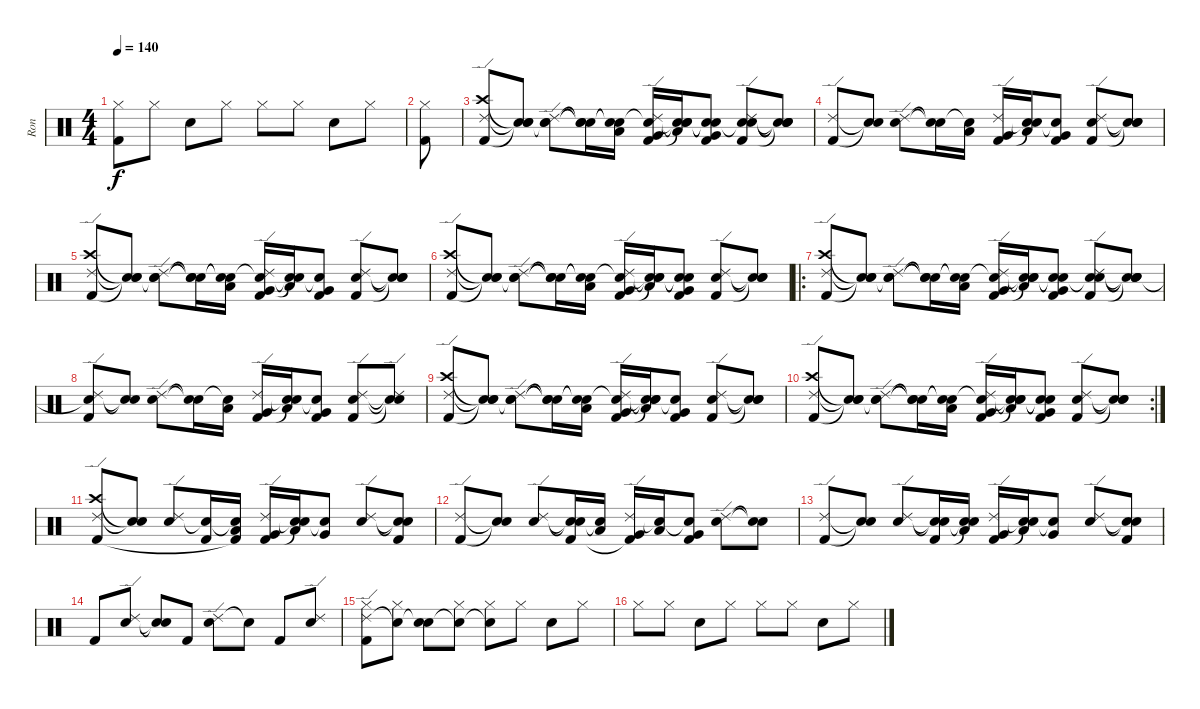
\track ("Ron" "Ron") {instrument percussion}
\staff {score}
\articulation defaults
\ts (4 4)
\tempo 140
\clef neutral
\ks c
("Hi-Hat (closed)" "Kick (hit) 2").8{dy f} "Hi-Hat (closed)".8 "Electric Snare (hit)".8 "Hi-Hat (closed)".8 "Hi-Hat (closed)".8 "Hi-Hat (closed)".8 "Electric Snare (hit)".8 "Hi-Hat (closed)".8 |
("Hi-Hat (closed)" "Kick (hit) 2").8 |
("Crash high (hit)" "Ride (edge) 2" "Kick (hit) 2").8 ("Snare (hit)"{t} "Snare (hit)"{t} "Snare (hit)"{t}).8 ("Snare (hit)"{t} "Ride (edge) 2" "Snare (hit) 2").8 ("Snare (hit)"{t} "Snare (hit)"{t} "Snare (hit)"{t}).16 ("Snare (hit)"{t} "Snare (hit)"{t} "Low Tom (hit)").16 ("Snare (hit)"{t} "Ride (edge) 2" "Very Low Tom (hit)" "Kick (hit) 2").16 ("Snare (hit)"{t} "Snare (hit)"{t} "Low Tom (hit)" "Snare (hit)"{t}).16 ("Snare (hit)"{t} "Snare (hit)"{t} "Very Low Tom (hit)" "Kick (hit) 2").8 ("Snare (hit)"{t} "Ride (edge) 2" "Snare (hit) 2" "Kick (hit) 2").8 ("Snare (hit)"{t} "Snare (hit)"{t} "Snare (hit)"{t} "Snare (hit)"{t}).8 |
("Ride (edge) 2" "Kick (hit) 2").8 ("Snare (hit)"{t} "Snare (hit)"{t}).8 ("Ride (edge) 2" "Snare (hit) 2").8 ("Snare (hit)"{t} "Snare (hit)"{t}).16 ("Snare (hit)"{t} "Low Tom (hit)").16 ("Ride (edge) 2" "Very Low Tom (hit)" "Kick (hit) 2").16 ("Snare (hit)"{t} "Low Tom (hit)" "Snare (hit)"{t}).16 ("Snare (hit)"{t} "Very Low Tom (hit)" "Kick (hit) 2").8 ("Ride (edge) 2" "Snare (hit) 2" "Kick (hit) 2").8 ("Snare (hit)"{t} "Snare (hit)"{t} "Snare (hit)"{t}).8 |
("Crash high (hit)" "Ride (edge) 2" "Kick (hit) 2").8 ("Snare (hit)"{t} "Snare (hit)"{t} "Snare (hit)"{t}).8 ("Snare (hit)"{t} "Ride (edge) 2" "Snare (hit) 2").8 ("Snare (hit)"{t} "Snare (hit)"{t} "Snare (hit)"{t}).16 ("Snare (hit)"{t} "Snare (hit)"{t} "Low Tom (hit)").16 ("Snare (hit)"{t} "Ride (edge) 2" "Very Low Tom (hit)" "Kick (hit) 2").16 ("Snare (hit)"{t} "Low Tom (hit)" "Snare (hit)"{t}).16 ("Snare (hit)"{t} "Very Low Tom (hit)" "Kick (hit) 2").8 ("Ride (edge) 2" "Snare (hit) 2" "Kick (hit) 2").8 ("Snare (hit)"{t} "Snare (hit)"{t} "Snare (hit)"{t}).8 |
("Crash high (hit)" "Ride (edge) 2" "Kick (hit) 2").8 ("Snare (hit)"{t} "Snare (hit)"{t} "Snare (hit)"{t}).8 ("Snare (hit)"{t} "Ride (edge) 2" "Snare (hit) 2").8 ("Snare (hit)"{t} "Snare (hit)"{t} "Snare (hit) 2"{t}).16 ("Snare (hit)"{t} "Snare (hit)"{t} "Low Tom (hit)").16 ("Snare (hit)"{t} "Ride (edge) 2" "Very Low Tom (hit)" "Kick (hit) 2").16 ("Snare (hit)"{t} "Snare (hit)"{t} "Low Tom (hit)" "Snare (hit)"{t}).16 ("Snare (hit)"{t} "Snare (hit)"{t} "Very Low Tom (hit)" "Kick (hit) 2").8 ("Ride (edge) 2" "Snare (hit) 2" "Kick (hit) 2").8 ("Snare (hit)"{t} "Snare (hit)"{t} "Snare (hit)"{t}).8 |
\ro
("Crash high (hit)" "Ride (edge) 2" "Kick (hit) 2").8 ("Snare (hit)"{t} "Snare (hit)"{t} "Snare (hit)"{t}).8 ("Snare (hit)"{t} "Ride (edge) 2" "Snare (hit) 2").8 ("Snare (hit)"{t} "Snare (hit)"{t} "Snare (hit)"{t}).16 ("Snare (hit)"{t} "Snare (hit)"{t} "Low Tom (hit)").16 ("Snare (hit)"{t} "Ride (edge) 2" "Very Low Tom (hit)" "Kick (hit) 2").16 ("Snare (hit)"{t} "Snare (hit)"{t} "Low Tom (hit)" "Snare (hit)"{t}).16 ("Snare (hit)"{t} "Snare (hit)"{t} "Very Low Tom (hit)" "Kick (hit) 2").8 ("Snare (hit)"{t} "Ride (edge) 2" "Snare (hit) 2" "Kick (hit) 2").8 ("Snare (hit)"{t} "Snare (hit)"{t} "Snare (hit)"{t} "Snare (hit)"{t}).8 |
("Snare (hit)"{t} "Ride (edge) 2" "Kick (hit) 2").8 ("Snare (hit)"{t} "Snare (hit)"{t}).8 ("Ride (edge) 2" "Snare (hit) 2").8 ("Snare (hit)"{t} "Snare (hit)"{t}).16 ("Snare (hit)"{t} "Low Tom (hit)").16 ("Ride (edge) 2" "Very Low Tom (hit)" "Kick (hit) 2").16 ("Snare (hit)"{t} "Low Tom (hit)" "Snare (hit)"{t}).16 ("Snare (hit)"{t} "Very Low Tom (hit)" "Kick (hit) 2").8 ("Ride (edge) 2" "Snare (hit) 2" "Kick (hit) 2").8 ("Ride (edge) 2"{t} "Snare (hit)"{t} "Snare (hit)"{t}).8 |
("Crash high (hit)" "Ride (edge) 2" "Kick (hit) 2").8 ("Snare (hit)"{t} "Snare (hit)"{t} "Snare (hit)"{t}).8 ("Snare (hit)"{t} "Ride (edge) 2" "Snare (hit) 2").8 ("Snare (hit)"{t} "Snare (hit)"{t} "Snare (hit)"{t}).16 ("Snare (hit)"{t} "Snare (hit)"{t} "Low Tom (hit)").16 ("Snare (hit)"{t} "Ride (edge) 2" "Very Low Tom (hit)" "Kick (hit) 2").16 ("Snare (hit)"{t} "Snare (hit)"{t} "Low Tom (hit)" "Snare (hit)"{t}).16 ("Snare (hit)"{t} "Very Low Tom (hit)" "Kick (hit) 2").8 ("Ride (edge) 2" "Snare (hit) 2" "Kick (hit) 2").8 ("Snare (hit)"{t} "Snare (hit)"{t} "Snare (hit)"{t}).8 |
\rc 2
("Crash high (hit)" "Ride (edge) 2" "Kick (hit) 2").8 ("Snare (hit)"{t} "Snare (hit)"{t} "Snare (hit)"{t}).8 ("Snare (hit)"{t} "Ride (edge) 2" "Snare (hit) 2").8 ("Snare (hit)"{t} "Snare (hit)"{t} "Snare (hit)"{t}).16 ("Snare (hit)"{t} "Snare (hit)"{t} "Low Tom (hit)").16 ("Snare (hit)"{t} "Ride (edge) 2" "Very Low Tom (hit)" "Kick (hit) 2").16 ("Snare (hit)"{t} "Snare (hit)"{t} "Low Tom (hit)" "Snare (hit)"{t}).16 ("Snare (hit)"{t} "Snare (hit)"{t} "Very Low Tom (hit)" "Kick (hit) 2").8 ("Ride (edge) 2" "Snare (hit) 2" "Kick (hit) 2").8 ("Snare (hit)"{t} "Snare (hit)"{t} "Snare (hit)"{t}).8 |
("Crash high (hit)" "Ride (edge) 2" "Kick (hit) 2").8 ("Snare (hit)"{t} "Snare (hit)"{t}).8 ("Ride (edge) 2" "Snare (hit) 2").8 ("Snare (hit)"{t} "Kick (hit) 2").16 ("Snare (hit)"{t} "Low Tom (hit)" "Kick (hit) 2"{t}).16 ("Ride (edge) 2" "Very Low Tom (hit)" "Kick (hit) 2").16 ("Snare (hit)"{t} "Low Tom (hit)" "Snare (hit)"{t}).16 ("Snare (hit)"{t} "Very Low Tom (hit)").8 ("Ride (edge) 2" "Snare (hit) 2").8 ("Snare (hit)"{t} "Snare (hit)"{t} "Kick (hit) 2").8 |
("Ride (edge) 2" "Kick (hit) 2").8 ("Snare (hit)"{t} "Snare (hit)"{t}).8 ("Ride (edge) 2" "Snare (hit) 2").8 ("Snare (hit)"{t} "Snare (hit)"{t} "Kick (hit) 2").16 ("Snare (hit)"{t} "Low Tom (hit)").16 ("Ride (edge) 2" "Very Low Tom (hit)" "Kick (hit) 2"{t}).16 ("Snare (hit)"{t} "Low Tom (hit)").16 ("Snare (hit)"{t} "Very Low Tom (hit)" "Kick (hit) 2").8 ("Ride (edge) 2" "Snare (hit) 2").8 ("Snare (hit)"{t} "Snare (hit)"{t}).8 |
("Ride (edge) 2" "Kick (hit) 2").8 ("Snare (hit)"{t} "Snare (hit)"{t}).8 ("Ride (edge) 2" "Snare (hit) 2").8 ("Snare (hit)"{t} "Snare (hit)"{t} "Kick (hit) 2").16 ("Snare (hit)"{t} "Low Tom (hit)" "Snare (hit)"{t}).16 ("Ride (edge) 2" "Very Low Tom (hit)" "Kick (hit) 2").16 ("Snare (hit)"{t} "Low Tom (hit)" "Snare (hit)"{t}).16 ("Snare (hit)"{t} "Very Low Tom (hit)").8 ("Ride (edge) 2" "Snare (hit) 2").8 ("Snare (hit)"{t} "Snare (hit)"{t} "Kick (hit) 2").8 |
"Kick (hit) 2".8 ("Ride (edge) 2" "Snare (hit) 2").8 ("Snare (hit)"{t} "Snare (hit)"{t}).8 "Kick (hit) 2".8 ("Ride (edge) 2" "Snare (hit) 2").8 "Snare (hit)"{t}.8 "Kick (hit) 2".8 ("Ride (edge) 2" "Snare (hit) 2").8 |
("Ride (edge) 2" "Hi-Hat (closed)" "Kick (hit) 2").8 ("Snare (hit)"{t} "Hi-Hat (closed)").8 ("Snare (hit)"{t} "Electric Snare (hit)").8 ("Snare (hit)"{t} "Hi-Hat (closed)").8 ("Snare (hit)"{t} "Hi-Hat (closed)").8 "Hi-Hat (closed)".8 "Electric Snare (hit)".8 "Hi-Hat (closed)".8 |
"Hi-Hat (closed)".8 "Hi-Hat (closed)".8 "Electric Snare (hit)".8 "Hi-Hat (closed)".8 "Hi-Hat (closed)".8 "Hi-Hat (closed)".8 "Electric Snare (hit)".8 "Hi-Hat (closed)".8
